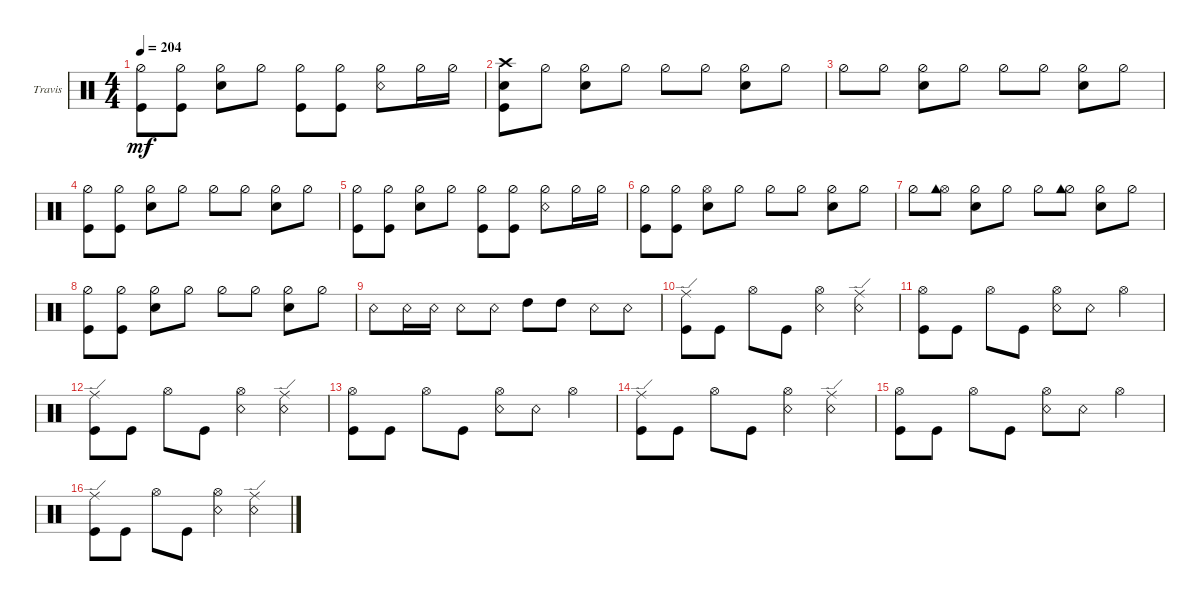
\defaultSystemsLayout 4
\bracketExtendMode groupsimilarinstruments
\firstSystemTrackNameOrientation horizontal
\otherSystemsTrackNameOrientation horizontal
\track ("Travis Barker" "Travis") {instrument percussion}
\staff {score}
\articulation defaults
\ts (4 4)
\tempo 204
\clef neutral
\ks c
("Hi-Hat (half)" "Kick (hit)").8{dy mf} ("Hi-Hat (half)" "Kick (hit)").8 ("Hi-Hat (half)" "Snare (hit) 2").8 "Hi-Hat (half)".8 ("Hi-Hat (half)" "Kick (hit)").8 ("Hi-Hat (half)" "Kick (hit)").8 ("Hi-Hat (half)" "Snare (rim shot)").8 "Hi-Hat (half)".16 "Hi-Hat (half)".16 |
("Crash high (hit)" "Kick (hit)" "Snare (hit) 2").8 "Hi-Hat (half)".8 ("Hi-Hat (half)" "Snare (hit) 2").8 "Hi-Hat (half)".8 "Hi-Hat (half)".8 "Hi-Hat (half)".8 ("Hi-Hat (half)" "Snare (hit) 2").8 "Hi-Hat (half)".8 |
"Hi-Hat (half)".8 "Hi-Hat (half)".8 ("Hi-Hat (half)" "Snare (hit) 2").8 "Hi-Hat (half)".8 "Hi-Hat (half)".8 "Hi-Hat (half)".8 ("Hi-Hat (half)" "Snare (hit) 2").8 "Hi-Hat (half)".8 |
("Hi-Hat (half)" "Kick (hit)").8 ("Kick (hit)" "Hi-Hat (half)").8 ("Hi-Hat (half)" "Snare (hit) 2").8 "Hi-Hat (half)".8 "Hi-Hat (half)".8 "Hi-Hat (half)".8 ("Hi-Hat (half)" "Snare (hit) 2").8 "Hi-Hat (half)".8 |
("Hi-Hat (half)" "Kick (hit)").8 ("Hi-Hat (half)" "Kick (hit)").8 ("Hi-Hat (half)" "Snare (hit) 2").8 "Hi-Hat (half)".8 ("Hi-Hat (half)" "Kick (hit)").8 ("Hi-Hat (half)" "Kick (hit)").8 ("Hi-Hat (half)" "Snare (rim shot)").8 "Hi-Hat (half)".16 "Hi-Hat (half)".16 |
("Hi-Hat (half)" "Kick (hit)").8 ("Kick (hit)" "Hi-Hat (half)").8 ("Hi-Hat (open)" "Snare (hit) 2").8 "Hi-Hat (half)".8 "Hi-Hat (half)".8 "Hi-Hat (half)".8 ("Hi-Hat (half)" "Snare (hit) 2").8 "Hi-Hat (half)".8 |
"Hi-Hat (half)".8 ("Hi-Hat (open)" "Cowbell high (hit)").8 ("Hi-Hat (half)" "Snare (hit) 2").8 "Hi-Hat (half)".8 "Hi-Hat (half)".8 ("Hi-Hat (half)" "Cowbell high (hit)").8 ("Hi-Hat (half)" "Snare (hit) 2").8 "Hi-Hat (half)".8 |
("Hi-Hat (half)" "Kick (hit)").8 ("Kick (hit)" "Hi-Hat (half)").8 ("Hi-Hat (half)" "Snare (hit) 2").8 "Hi-Hat (half)".8 "Hi-Hat (half)".8 "Hi-Hat (half)".8 ("Hi-Hat (half)" "Snare (hit) 2").8 "Hi-Hat (half)".8 |
"Snare (rim shot)".8 "Snare (rim shot)".16 "Snare (rim shot)".16 "Snare (rim shot)".8 "Snare (rim shot)".8 "High Tom (hit)".8 "High Tom (hit)".8 "Snare (rim shot)".8 "Snare (rim shot)".8 |
("Ride (edge)" "Kick (hit)").8 "Kick (hit)".8 "Hi-Hat (open)".8 "Kick (hit)".8 ("Snare (rim shot)" "Hi-Hat (open)").4 ("Snare (rim shot)" "Ride (edge)").4 |
("Kick (hit)" "Hi-Hat (open)").8 "Kick (hit)".8 "Hi-Hat (open)".8 "Kick (hit)".8 ("Snare (rim shot)" "Hi-Hat (open)").8 "Snare (rim shot)".8 "Hi-Hat (open)".4 |
("Ride (edge)" "Kick (hit)").8 "Kick (hit)".8 "Hi-Hat (open)".8 "Kick (hit)".8 ("Snare (rim shot)" "Hi-Hat (open)").4 ("Snare (rim shot)" "Ride (edge)").4 |
("Kick (hit)" "Hi-Hat (open)").8 "Kick (hit)".8 "Hi-Hat (open)".8 "Kick (hit)".8 ("Snare (rim shot)" "Hi-Hat (open)").8 "Snare (rim shot)".8 "Hi-Hat (open)".4 |
("Ride (edge)" "Kick (hit)").8 "Kick (hit)".8 "Hi-Hat (open)".8 "Kick (hit)".8 ("Snare (rim shot)" "Hi-Hat (open)").4 ("Snare (rim shot)" "Ride (edge)").4 |
("Kick (hit)" "Hi-Hat (open)").8 "Kick (hit)".8 "Hi-Hat (open)".8 "Kick (hit)".8 ("Snare (rim shot)" "Hi-Hat (open)").8 "Snare (rim shot)".8 "Hi-Hat (open)".4 |
("Ride (edge)" "Kick (hit)").8 "Kick (hit)".8 "Hi-Hat (open)".8 "Kick (hit)".8 ("Snare (rim shot)" "Hi-Hat (open)").4 ("Snare (rim shot)" "Ride (edge)").4
